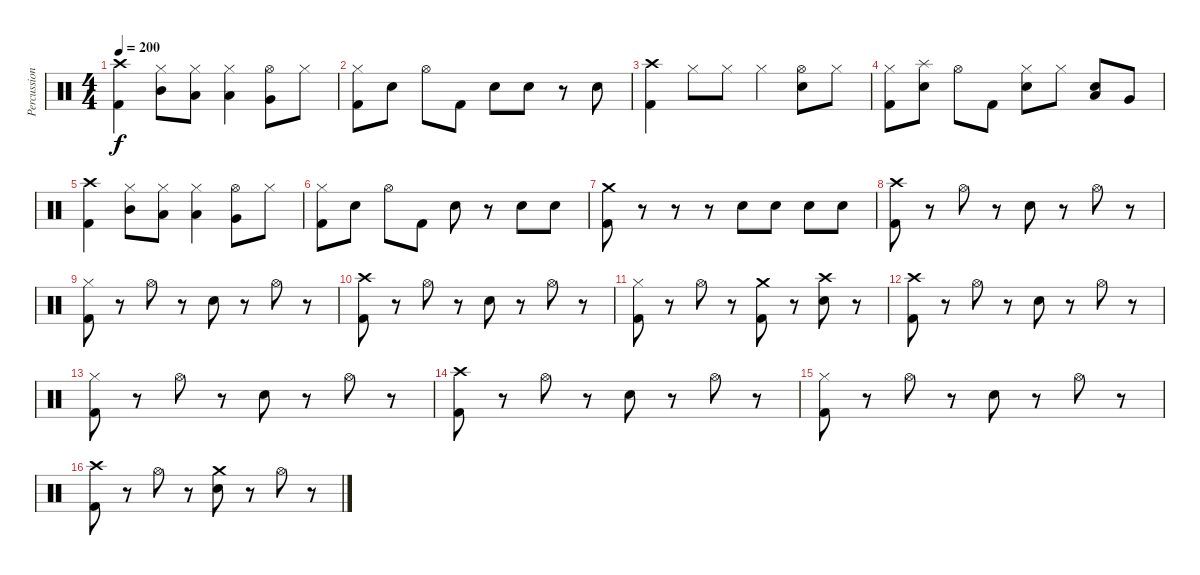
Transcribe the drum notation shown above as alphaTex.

\track ("Percussion" "Percussion") {instrument percussion}
\staff {score}
\articulation defaults
\ts (4 4)
\tempo 200
\clef neutral
\ks c
("Crash high (hit)" "Kick (hit) 2").4{dy f} ("Hi-Hat (closed)" "Mid Tom (hit)").8 ("Hi-Hat (closed)" "Low Tom (hit)").8 ("Hi-Hat (closed)" "Low Tom (hit)").4 ("Hi-Hat (open)" "Very Low Tom (hit)").8 "Hi-Hat (closed)".8 |
("Hi-Hat (closed)" "Kick (hit) 2").8 "Snare (hit) 2".8 "Hi-Hat (open)".8 "Kick (hit) 2".8 "Snare (hit) 2".8 "Snare (hit) 2".8 r.8 "Snare (hit) 2".8 |
("Crash high (hit)" "Kick (hit) 2").4 "Hi-Hat (closed)".8 "Hi-Hat (closed)".8 "Hi-Hat (closed)".4 ("Hi-Hat (open)" "Snare (hit) 2").8 "Hi-Hat (closed)".8 |
("Hi-Hat (closed)" "Kick (hit) 2").8 ("Splash (hit)" "Snare (hit) 2").8 "Hi-Hat (open)".8 "Kick (hit) 2".8 ("Hi-Hat (closed)" "Snare (hit) 2").8 "Hi-Hat (closed)".8 ("Low Tom (hit)" "Snare (hit) 2").8 "Very Low Tom (hit)".8 |
("Crash high (hit)" "Kick (hit) 2").4 ("Hi-Hat (closed)" "Mid Tom (hit)").8 ("Hi-Hat (closed)" "Low Tom (hit)").8 ("Hi-Hat (closed)" "Low Tom (hit)").4 ("Hi-Hat (open)" "Very Low Tom (hit)").8 "Hi-Hat (closed)".8 |
("Hi-Hat (closed)" "Kick (hit) 2").8 "Snare (hit) 2".8 "Hi-Hat (open)".8 "Kick (hit) 2".8 "Snare (hit) 2".8 r.8 "Snare (hit) 2".8 "Snare (hit) 2".8 |
("Crash medium (hit)" "Kick (hit) 2").8 r.8 r.8 r.8 "Snare (hit) 2".8 "Snare (hit) 2".8 "Snare (hit) 2".8 "Snare (hit) 2".8 |
("Crash high (hit)" "Kick (hit) 2").8 r.8 "Hi-Hat (open)".8 r.8 "Snare (hit) 2".8 r.8 "Hi-Hat (open)".8 r.8 |
("Hi-Hat (closed)" "Kick (hit) 2").8 r.8 "Hi-Hat (open)".8 r.8 "Snare (hit) 2".8 r.8 "Hi-Hat (open)".8 r.8 |
("Crash high (hit)" "Kick (hit) 2").8 r.8 "Hi-Hat (open)".8 r.8 "Snare (hit) 2".8 r.8 "Hi-Hat (open)".8 r.8 |
("Hi-Hat (closed)" "Kick (hit) 2").8 r.8 "Hi-Hat (open)".8 r.8 ("Crash medium (hit)" "Kick (hit) 2").8 r.8 ("Crash high (hit)" "Snare (hit) 2").8 r.8 |
("Crash high (hit)" "Kick (hit) 2").8 r.8 "Hi-Hat (open)".8 r.8 "Snare (hit) 2".8 r.8 "Hi-Hat (open)".8 r.8 |
("Hi-Hat (closed)" "Kick (hit) 2").8 r.8 "Hi-Hat (open)".8 r.8 "Snare (hit) 2".8 r.8 "Hi-Hat (open)".8 r.8 |
("Crash high (hit)" "Kick (hit) 2").8 r.8 "Hi-Hat (open)".8 r.8 "Snare (hit) 2".8 r.8 "Hi-Hat (open)".8 r.8 |
("Hi-Hat (closed)" "Kick (hit) 2").8 r.8 "Hi-Hat (open)".8 r.8 "Snare (hit) 2".8 r.8 "Hi-Hat (open)".8 r.8 |
("Crash high (hit)" "Kick (hit) 2").8 r.8 "Hi-Hat (open)".8 r.8 ("Crash medium (hit)" "Snare (hit) 2").8 r.8 "Hi-Hat (open)".8 r.8
